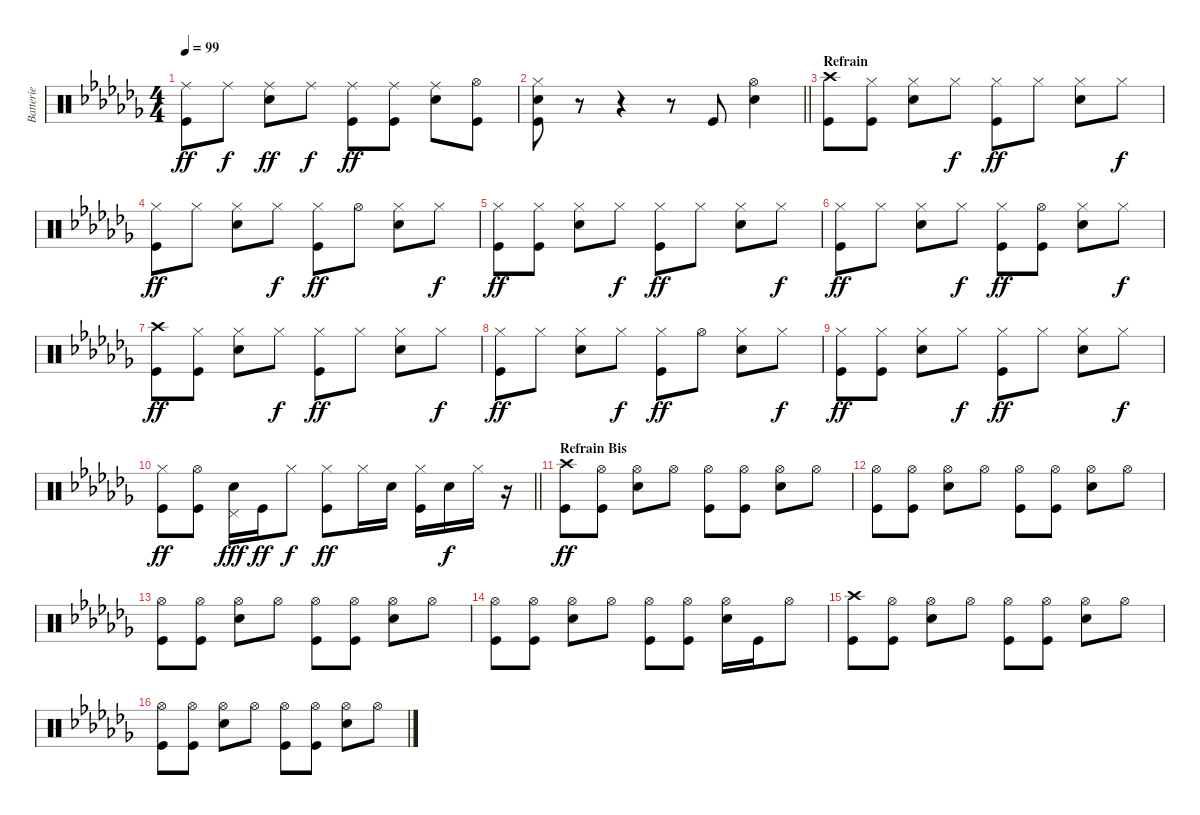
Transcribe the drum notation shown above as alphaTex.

\track ("Batterie" "Batterie") {instrument percussion}
\staff {score}
\articulation defaults
\ts (4 4)
\tempo 99
\clef neutral
\ks cb
("Ride (middle)" "Kick (hit)").8{dy ff} "Ride (middle)".8{dy f} ("Ride (middle)" "Snare (hit) 2").8{dy ff} "Ride (middle)".8{dy f} ("Ride (middle)" "Kick (hit)").8{dy ff} ("Ride (middle)" "Kick (hit)").8 ("Ride (middle)" "Snare (hit) 2").8 ("Hi-Hat (open)" "Kick (hit)").8 |
\barLineRight lightlight
("Hi-Hat (closed)" "Snare (hit) 2" "Kick (hit)").8 r.8 r.4 r.8 "Kick (hit)".8 ("Hi-Hat (open)" "Snare (hit) 2").4 |
\section ("" "Refrain")
("Crash high (hit)" "Kick (hit)").8 ("Hi-Hat (closed)" "Kick (hit)").8 ("Hi-Hat (closed)" "Snare (hit) 2").8 "Hi-Hat (closed)".8{dy f} ("Hi-Hat (closed)" "Kick (hit)").8{dy ff} "Hi-Hat (closed)".8 ("Hi-Hat (closed)" "Snare (hit) 2").8 "Hi-Hat (closed)".8{dy f} |
("Hi-Hat (closed)" "Kick (hit)").8{dy ff} "Hi-Hat (closed)".8 ("Hi-Hat (closed)" "Snare (hit) 2").8 "Hi-Hat (closed)".8{dy f} ("Hi-Hat (closed)" "Kick (hit)").8{dy ff} "Hi-Hat (open)".8 ("Hi-Hat (closed)" "Snare (hit) 2").8 "Hi-Hat (closed)".8{dy f} |
("Hi-Hat (closed)" "Kick (hit)").8{dy ff} ("Hi-Hat (closed)" "Kick (hit)").8 ("Hi-Hat (closed)" "Snare (hit) 2").8 "Hi-Hat (closed)".8{dy f} ("Hi-Hat (closed)" "Kick (hit)").8{dy ff} "Hi-Hat (closed)".8 ("Hi-Hat (closed)" "Snare (hit) 2").8 "Hi-Hat (closed)".8{dy f} |
("Hi-Hat (closed)" "Kick (hit)").8{dy ff} "Hi-Hat (closed)".8 ("Hi-Hat (closed)" "Snare (hit) 2").8 "Hi-Hat (closed)".8{dy f} ("Hi-Hat (closed)" "Kick (hit)").8{dy ff} ("Hi-Hat (open)" "Kick (hit)").8 ("Hi-Hat (closed)" "Snare (hit) 2").8 "Hi-Hat (closed)".8{dy f} |
("Crash high (hit)" "Kick (hit)").8{dy ff} ("Hi-Hat (closed)" "Kick (hit)").8 ("Hi-Hat (closed)" "Snare (hit) 2").8 "Hi-Hat (closed)".8{dy f} ("Hi-Hat (closed)" "Kick (hit)").8{dy ff} "Hi-Hat (closed)".8 ("Hi-Hat (closed)" "Snare (hit) 2").8 "Hi-Hat (closed)".8{dy f} |
("Hi-Hat (closed)" "Kick (hit)").8{dy ff} "Hi-Hat (closed)".8 ("Hi-Hat (closed)" "Snare (hit) 2").8 "Hi-Hat (closed)".8{dy f} ("Hi-Hat (closed)" "Kick (hit)").8{dy ff} "Hi-Hat (open)".8 ("Hi-Hat (closed)" "Snare (hit) 2").8 "Hi-Hat (closed)".8{dy f} |
("Hi-Hat (closed)" "Kick (hit)").8{dy ff} ("Hi-Hat (closed)" "Kick (hit)").8 ("Hi-Hat (closed)" "Snare (hit) 2").8 "Hi-Hat (closed)".8{dy f} ("Hi-Hat (closed)" "Kick (hit)").8{dy ff} "Hi-Hat (closed)".8 ("Hi-Hat (closed)" "Snare (hit) 2").8 "Hi-Hat (closed)".8{dy f} |
\barLineRight lightlight
("Hi-Hat (closed)" "Kick (hit)").8{dy ff} ("Hi-Hat (open)" "Kick (hit)").8 ("Pedal Hi-Hat (hit)" "Snare (hit) 2").16{dy fff} "Kick (hit)".16{dy ff} "Hi-Hat (closed)".8{dy f} ("Hi-Hat (closed)" "Kick (hit)").8{dy ff} "Hi-Hat (closed)".16 "Snare (hit) 2".16 ("Hi-Hat (closed)" "Kick (hit)").16 "Snare (hit) 2".16{dy f} "Hi-Hat (closed)".16 r.16 |
\section ("" "Refrain Bis")
("Crash high (hit)" "Kick (hit)").8{dy ff} ("Hi-Hat (open)" "Kick (hit)").8 ("Hi-Hat (open)" "Snare (hit) 2").8 "Hi-Hat (open)".8 ("Hi-Hat (open)" "Kick (hit)").8 ("Hi-Hat (open)" "Kick (hit)").8 ("Hi-Hat (open)" "Snare (hit) 2").8 "Hi-Hat (open)".8 |
("Hi-Hat (open)" "Kick (hit)").8 ("Hi-Hat (open)" "Kick (hit)").8 ("Hi-Hat (open)" "Snare (hit) 2").8 "Hi-Hat (open)".8 ("Hi-Hat (open)" "Kick (hit)").8 ("Hi-Hat (open)" "Kick (hit)").8 ("Hi-Hat (open)" "Snare (hit) 2").8 "Hi-Hat (open)".8 |
("Hi-Hat (open)" "Kick (hit)").8 ("Hi-Hat (open)" "Kick (hit)").8 ("Hi-Hat (open)" "Snare (hit) 2").8 "Hi-Hat (open)".8 ("Hi-Hat (open)" "Kick (hit)").8 ("Hi-Hat (open)" "Kick (hit)").8 ("Hi-Hat (open)" "Snare (hit) 2").8 "Hi-Hat (open)".8 |
("Hi-Hat (open)" "Kick (hit)").8 ("Hi-Hat (open)" "Kick (hit)").8 ("Hi-Hat (open)" "Snare (hit) 2").8 "Hi-Hat (open)".8 ("Hi-Hat (open)" "Kick (hit)").8 ("Hi-Hat (open)" "Kick (hit)").8 ("Hi-Hat (open)" "Snare (hit) 2").16 "Kick (hit)".16 "Hi-Hat (open)".8 |
("Crash high (hit)" "Kick (hit)").8 ("Hi-Hat (open)" "Kick (hit)").8 ("Hi-Hat (open)" "Snare (hit) 2").8 "Hi-Hat (open)".8 ("Hi-Hat (open)" "Kick (hit)").8 ("Hi-Hat (open)" "Kick (hit)").8 ("Hi-Hat (open)" "Snare (hit) 2").8 "Hi-Hat (open)".8 |
("Hi-Hat (open)" "Kick (hit)").8 ("Hi-Hat (open)" "Kick (hit)").8 ("Hi-Hat (open)" "Snare (hit) 2").8 "Hi-Hat (open)".8 ("Hi-Hat (open)" "Kick (hit)").8 ("Hi-Hat (open)" "Kick (hit)").8 ("Hi-Hat (open)" "Snare (hit) 2").8 "Hi-Hat (open)".8
